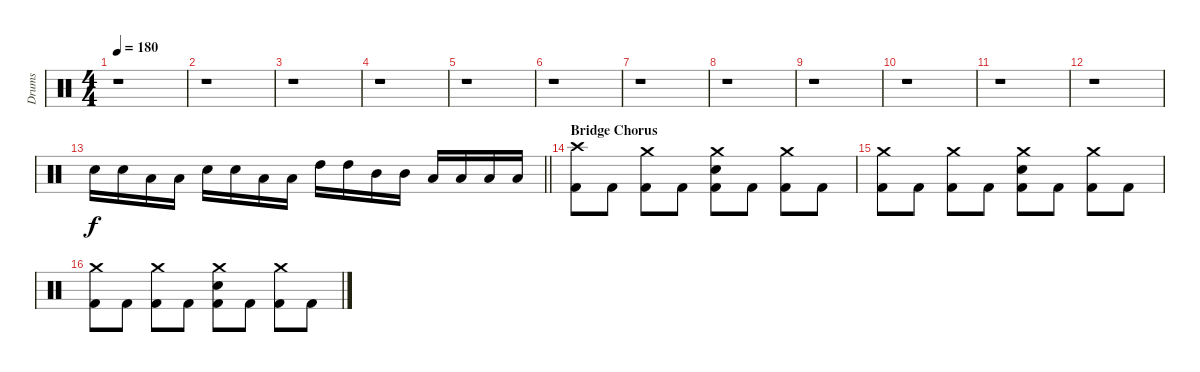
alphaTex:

\track ("Drums" "Drums") {instrument percussion}
\staff {score}
\articulation defaults
\ts (4 4)
\tempo 180
\clef neutral
\ks c
r.1{dy f} |
r.1 |
r.1 |
r.1 |
r.1 |
r.1 |
r.1 |
r.1 |
r.1 |
r.1 |
r.1 |
r.1 |
\barLineRight lightlight "Snare (hit) 2".16 "Snare (hit) 2".16 "Low Tom (hit)".16 "Low Tom (hit)".16 "Snare (hit) 2".16 "Snare (hit) 2".16 "Low Tom (hit)".16 "Low Tom (hit)".16 "High Tom (hit)".16 "High Tom (hit)".16 "Mid Tom (hit)".16 "Mid Tom (hit)".16 "Low Tom (hit)".16 "Low Tom (hit)".16 "Low Tom (hit)".16 "Low Tom (hit)".16
|
\section ("" "Bridge Chorus")
("Crash high (hit)" "Kick (hit) 2").8 "Kick (hit) 2".8 ("Crash medium (hit)" "Kick (hit) 2").8 "Kick (hit) 2".8 ("Crash medium (hit)" "Snare (hit) 2" "Kick (hit) 2").8 "Kick (hit) 2".8 ("Crash medium (hit)" "Kick (hit) 2").8 "Kick (hit) 2".8 |
("Crash medium (hit)" "Kick (hit) 2").8 "Kick (hit) 2".8 ("Crash medium (hit)" "Kick (hit) 2").8 "Kick (hit) 2".8 ("Crash medium (hit)" "Snare (hit) 2" "Kick (hit) 2").8 "Kick (hit) 2".8 ("Crash medium (hit)" "Kick (hit) 2").8 "Kick (hit) 2".8 |
("Crash medium (hit)" "Kick (hit) 2").8 "Kick (hit) 2".8 ("Crash medium (hit)" "Kick (hit) 2").8 "Kick (hit) 2".8 ("Crash medium (hit)" "Snare (hit) 2" "Kick (hit) 2").8 "Kick (hit) 2".8 ("Crash medium (hit)" "Kick (hit) 2").8 "Kick (hit) 2".8
